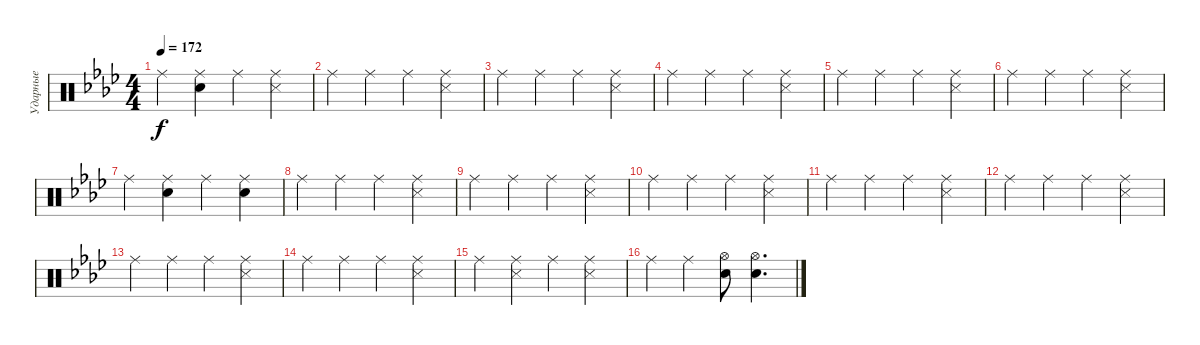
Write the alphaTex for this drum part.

\track ("Ударные" "Ударные") {instrument percussion}
\staff {score}
\articulation defaults
\ts (4 4)
\tempo 172
\clef neutral
\ks ab "Ride (middle)".4{dy f}
("Ride (middle)" "Electric Snare (hit)").4 "Ride (middle)".4 ("Ride (middle)" "Snare (side stick) 3").4 |
"Ride (middle)".4 "Ride (middle)".4 "Ride (middle)".4 ("Ride (middle)" "Snare (side stick) 3").4 |
"Ride (middle)".4 "Ride (middle)".4 "Ride (middle)".4 ("Ride (middle)" "Snare (side stick) 3").4 |
"Ride (middle)".4 "Ride (middle)".4 "Ride (middle)".4 ("Ride (middle)" "Snare (side stick) 3").4 |
"Ride (middle)".4 "Ride (middle)".4 "Ride (middle)".4 ("Ride (middle)" "Snare (side stick) 3").4 |
"Ride (middle)".4 "Ride (middle)".4 "Ride (middle)".4 ("Ride (middle)" "Snare (side stick) 3").4 |
"Ride (middle)".4 ("Ride (middle)" "Electric Snare (hit)").4 "Ride (middle)".4 ("Ride (middle)" "Electric Snare (hit)").4 |
"Ride (middle)".4 "Ride (middle)".4 "Ride (middle)".4 ("Ride (middle)" "Snare (side stick) 3").4 |
"Ride (middle)".4 "Ride (middle)".4 "Ride (middle)".4 ("Ride (middle)" "Snare (side stick) 3").4 |
"Ride (middle)".4 "Ride (middle)".4 "Ride (middle)".4 ("Ride (middle)" "Snare (side stick) 3").4 |
"Ride (middle)".4 "Ride (middle)".4 "Ride (middle)".4 ("Ride (middle)" "Snare (side stick) 3").4 |
"Ride (middle)".4 "Ride (middle)".4 "Ride (middle)".4 ("Ride (middle)" "Snare (side stick) 3").4 |
"Ride (middle)".4 "Ride (middle)".4 "Ride (middle)".4 ("Ride (middle)" "Snare (side stick) 3").4 |
"Ride (middle)".4 "Ride (middle)".4 "Ride (middle)".4 ("Ride (middle)" "Snare (side stick) 3").4 |
"Ride (middle)".4 ("Ride (middle)" "Snare (side stick) 3").4 "Ride (middle)".4 ("Ride (middle)" "Snare (side stick) 3").4 |
"Ride (middle)".4 "Ride (middle)".4 ("Hi-Hat (open)" "Electric Snare (hit)").8 ("Hi-Hat (open)" "Electric Snare (hit)").4{d}
